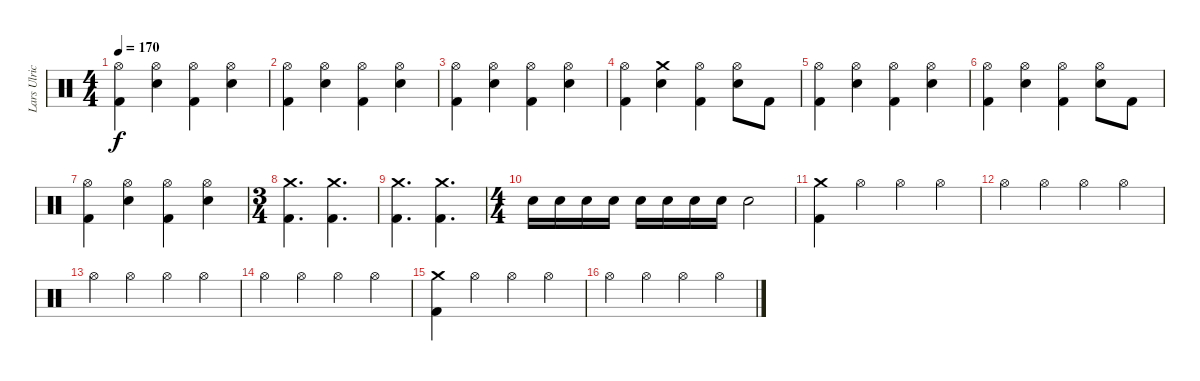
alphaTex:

\track ("Lars Ulrich" "Lars Ulric") {instrument percussion}
\staff {score}
\articulation defaults
\ts (4 4)
\tempo 170
\clef neutral
\ks c
("Hi-Hat (open)" "Kick (hit) 2").4{dy f} ("Hi-Hat (open)" "Electric Snare (hit)").4 ("Hi-Hat (open)" "Kick (hit) 2").4 ("Hi-Hat (open)" "Electric Snare (hit)").4 |
("Hi-Hat (open)" "Kick (hit) 2").4 ("Hi-Hat (open)" "Electric Snare (hit)").4 ("Hi-Hat (open)" "Kick (hit) 2").4 ("Hi-Hat (open)" "Electric Snare (hit)").4 |
("Hi-Hat (open)" "Kick (hit) 2").4 ("Hi-Hat (open)" "Electric Snare (hit)").4 ("Hi-Hat (open)" "Kick (hit) 2").4 ("Hi-Hat (open)" "Electric Snare (hit)").4 |
("Hi-Hat (open)" "Kick (hit) 2").4 ("Crash medium (hit)" "Electric Snare (hit)").4 ("Hi-Hat (open)" "Kick (hit) 2").4 ("Hi-Hat (open)" "Electric Snare (hit)").8 "Kick (hit) 2".8 |
("Hi-Hat (open)" "Kick (hit) 2").4 ("Hi-Hat (open)" "Electric Snare (hit)").4 ("Hi-Hat (open)" "Kick (hit) 2").4 ("Hi-Hat (open)" "Electric Snare (hit)").4 |
("Hi-Hat (open)" "Kick (hit) 2").4 ("Hi-Hat (open)" "Electric Snare (hit)").4 ("Hi-Hat (open)" "Kick (hit) 2").4 ("Hi-Hat (open)" "Electric Snare (hit)").8 "Kick (hit) 2".8 |
("Hi-Hat (open)" "Kick (hit) 2").4 ("Hi-Hat (open)" "Electric Snare (hit)").4 ("Hi-Hat (open)" "Kick (hit) 2").4 ("Hi-Hat (open)" "Electric Snare (hit)").4 |
\ts (3 4)
("Crash medium (hit)" "Kick (hit) 2").4{d} ("Crash medium (hit)" "Kick (hit) 2").4{d} |
("Crash medium (hit)" "Kick (hit) 2").4{d} ("Crash medium (hit)" "Kick (hit) 2").4{d} |
\ts (4 4)
"Electric Snare (hit)".16 "Electric Snare (hit)".16 "Electric Snare (hit)".16 "Electric Snare (hit)".16 "Electric Snare (hit)".16 "Electric Snare (hit)".16 "Electric Snare (hit)".16 "Electric Snare (hit)".16 "Electric Snare (hit)".2 |
("Crash medium (hit)" "Kick (hit) 2").4 "Hi-Hat (open)".4 "Hi-Hat (open)".4 "Hi-Hat (open)".4 |
"Hi-Hat (open)".4 "Hi-Hat (open)".4 "Hi-Hat (open)".4 "Hi-Hat (open)".4 |
"Hi-Hat (open)".4 "Hi-Hat (open)".4 "Hi-Hat (open)".4 "Hi-Hat (open)".4 |
"Hi-Hat (open)".4 "Hi-Hat (open)".4 "Hi-Hat (open)".4 "Hi-Hat (open)".4 |
("Crash medium (hit)" "Kick (hit) 2").4 "Hi-Hat (open)".4 "Hi-Hat (open)".4 "Hi-Hat (open)".4 |
"Hi-Hat (open)".4 "Hi-Hat (open)".4 "Hi-Hat (open)".4 "Hi-Hat (open)".4
